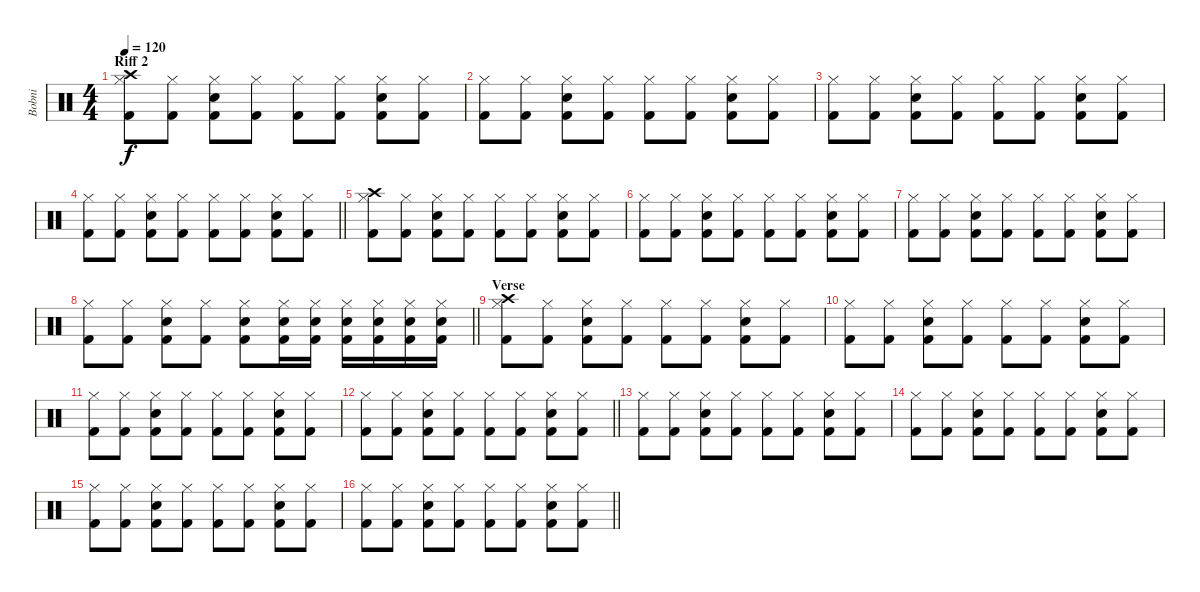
\track ("Bobni" "Bobni") {instrument percussion}
\staff {score}
\articulation defaults
\ts (4 4)
\section ("" "Riff 2")
\tempo 120
\clef neutral
\ks c
("Crash high (hit)" "Hi-Hat (closed)" "Kick (hit) 2").8{dy f} ("Hi-Hat (closed)" "Kick (hit) 2").8 ("Hi-Hat (closed)" "Electric Snare (hit)" "Kick (hit) 2").8 ("Hi-Hat (closed)" "Kick (hit) 2").8 ("Hi-Hat (closed)" "Kick (hit) 2").8 ("Hi-Hat (closed)" "Kick (hit) 2").8 ("Hi-Hat (closed)" "Electric Snare (hit)" "Kick (hit) 2").8 ("Hi-Hat (closed)" "Kick (hit) 2").8 |
("Hi-Hat (closed)" "Kick (hit) 2").8 ("Hi-Hat (closed)" "Kick (hit) 2").8 ("Hi-Hat (closed)" "Electric Snare (hit)" "Kick (hit) 2").8 ("Hi-Hat (closed)" "Kick (hit) 2").8 ("Hi-Hat (closed)" "Kick (hit) 2").8 ("Hi-Hat (closed)" "Kick (hit) 2").8 ("Hi-Hat (closed)" "Electric Snare (hit)" "Kick (hit) 2").8 ("Hi-Hat (closed)" "Kick (hit) 2").8 |
("Hi-Hat (closed)" "Kick (hit) 2").8 ("Hi-Hat (closed)" "Kick (hit) 2").8 ("Hi-Hat (closed)" "Electric Snare (hit)" "Kick (hit) 2").8 ("Hi-Hat (closed)" "Kick (hit) 2").8 ("Hi-Hat (closed)" "Kick (hit) 2").8 ("Hi-Hat (closed)" "Kick (hit) 2").8 ("Hi-Hat (closed)" "Electric Snare (hit)" "Kick (hit) 2").8 ("Hi-Hat (closed)" "Kick (hit) 2").8 |
\barLineRight lightlight
("Hi-Hat (closed)" "Kick (hit) 2").8 ("Hi-Hat (closed)" "Kick (hit) 2").8 ("Hi-Hat (closed)" "Electric Snare (hit)" "Kick (hit) 2").8 ("Hi-Hat (closed)" "Kick (hit) 2").8 ("Hi-Hat (closed)" "Kick (hit) 2").8 ("Hi-Hat (closed)" "Kick (hit) 2").8 ("Hi-Hat (closed)" "Electric Snare (hit)" "Kick (hit) 2").8 ("Hi-Hat (closed)" "Kick (hit) 2").8 |
("Crash high (hit)" "Hi-Hat (closed)" "Kick (hit) 2").8 ("Hi-Hat (closed)" "Kick (hit) 2").8 ("Hi-Hat (closed)" "Electric Snare (hit)" "Kick (hit) 2").8 ("Hi-Hat (closed)" "Kick (hit) 2").8 ("Hi-Hat (closed)" "Kick (hit) 2").8 ("Hi-Hat (closed)" "Kick (hit) 2").8 ("Hi-Hat (closed)" "Electric Snare (hit)" "Kick (hit) 2").8 ("Hi-Hat (closed)" "Kick (hit) 2").8 |
("Hi-Hat (closed)" "Kick (hit) 2").8 ("Hi-Hat (closed)" "Kick (hit) 2").8 ("Hi-Hat (closed)" "Electric Snare (hit)" "Kick (hit) 2").8 ("Hi-Hat (closed)" "Kick (hit) 2").8 ("Hi-Hat (closed)" "Kick (hit) 2").8 ("Hi-Hat (closed)" "Kick (hit) 2").8 ("Hi-Hat (closed)" "Electric Snare (hit)" "Kick (hit) 2").8 ("Hi-Hat (closed)" "Kick (hit) 2").8 |
("Hi-Hat (closed)" "Kick (hit) 2").8 ("Hi-Hat (closed)" "Kick (hit) 2").8 ("Hi-Hat (closed)" "Electric Snare (hit)" "Kick (hit) 2").8 ("Hi-Hat (closed)" "Kick (hit) 2").8 ("Hi-Hat (closed)" "Kick (hit) 2").8 ("Hi-Hat (closed)" "Kick (hit) 2").8 ("Hi-Hat (closed)" "Electric Snare (hit)" "Kick (hit) 2").8 ("Hi-Hat (closed)" "Kick (hit) 2").8 |
\barLineRight lightlight
("Hi-Hat (closed)" "Kick (hit) 2").8 ("Hi-Hat (closed)" "Kick (hit) 2").8 ("Hi-Hat (closed)" "Electric Snare (hit)" "Kick (hit) 2").8 ("Hi-Hat (closed)" "Kick (hit) 2").8 ("Hi-Hat (closed)" "Electric Snare (hit)" "Kick (hit) 2").8 ("Hi-Hat (closed)" "Electric Snare (hit)" "Kick (hit) 2").16 ("Hi-Hat (closed)" "Electric Snare (hit)" "Kick (hit) 2").16 ("Hi-Hat (closed)" "Electric Snare (hit)" "Kick (hit) 2").16 ("Hi-Hat (closed)" "Electric Snare (hit)" "Kick (hit) 2").16 ("Hi-Hat (closed)" "Electric Snare (hit)" "Kick (hit) 2").16 ("Hi-Hat (closed)" "Electric Snare (hit)" "Kick (hit) 2").16 |
\section ("" "Verse")
("Crash high (hit)" "Hi-Hat (closed)" "Kick (hit) 2").8 ("Hi-Hat (closed)" "Kick (hit) 2").8 ("Hi-Hat (closed)" "Electric Snare (hit)" "Kick (hit) 2").8 ("Hi-Hat (closed)" "Kick (hit) 2").8 ("Hi-Hat (closed)" "Kick (hit) 2").8 ("Hi-Hat (closed)" "Kick (hit) 2").8 ("Hi-Hat (closed)" "Electric Snare (hit)" "Kick (hit) 2").8 ("Hi-Hat (closed)" "Kick (hit) 2").8 |
("Hi-Hat (closed)" "Kick (hit) 2").8 ("Hi-Hat (closed)" "Kick (hit) 2").8 ("Hi-Hat (closed)" "Electric Snare (hit)" "Kick (hit) 2").8 ("Hi-Hat (closed)" "Kick (hit) 2").8 ("Hi-Hat (closed)" "Kick (hit) 2").8 ("Hi-Hat (closed)" "Kick (hit) 2").8 ("Hi-Hat (closed)" "Electric Snare (hit)" "Kick (hit) 2").8 ("Hi-Hat (closed)" "Kick (hit) 2").8 |
("Hi-Hat (closed)" "Kick (hit) 2").8 ("Hi-Hat (closed)" "Kick (hit) 2").8 ("Hi-Hat (closed)" "Electric Snare (hit)" "Kick (hit) 2").8 ("Hi-Hat (closed)" "Kick (hit) 2").8 ("Hi-Hat (closed)" "Kick (hit) 2").8 ("Hi-Hat (closed)" "Kick (hit) 2").8 ("Hi-Hat (closed)" "Electric Snare (hit)" "Kick (hit) 2").8 ("Hi-Hat (closed)" "Kick (hit) 2").8 |
\barLineRight lightlight
("Hi-Hat (closed)" "Kick (hit) 2").8 ("Hi-Hat (closed)" "Kick (hit) 2").8 ("Hi-Hat (closed)" "Electric Snare (hit)" "Kick (hit) 2").8 ("Hi-Hat (closed)" "Kick (hit) 2").8 ("Hi-Hat (closed)" "Kick (hit) 2").8 ("Hi-Hat (closed)" "Kick (hit) 2").8 ("Hi-Hat (closed)" "Electric Snare (hit)" "Kick (hit) 2").8 ("Hi-Hat (closed)" "Kick (hit) 2").8 |
("Hi-Hat (closed)" "Kick (hit) 2").8 ("Hi-Hat (closed)" "Kick (hit) 2").8 ("Hi-Hat (closed)" "Electric Snare (hit)" "Kick (hit) 2").8 ("Hi-Hat (closed)" "Kick (hit) 2").8 ("Hi-Hat (closed)" "Kick (hit) 2").8 ("Hi-Hat (closed)" "Kick (hit) 2").8 ("Hi-Hat (closed)" "Electric Snare (hit)" "Kick (hit) 2").8 ("Hi-Hat (closed)" "Kick (hit) 2").8 |
("Hi-Hat (closed)" "Kick (hit) 2").8 ("Hi-Hat (closed)" "Kick (hit) 2").8 ("Hi-Hat (closed)" "Electric Snare (hit)" "Kick (hit) 2").8 ("Hi-Hat (closed)" "Kick (hit) 2").8 ("Hi-Hat (closed)" "Kick (hit) 2").8 ("Hi-Hat (closed)" "Kick (hit) 2").8 ("Hi-Hat (closed)" "Electric Snare (hit)" "Kick (hit) 2").8 ("Hi-Hat (closed)" "Kick (hit) 2").8 |
("Hi-Hat (closed)" "Kick (hit) 2").8 ("Hi-Hat (closed)" "Kick (hit) 2").8 ("Hi-Hat (closed)" "Electric Snare (hit)" "Kick (hit) 2").8 ("Hi-Hat (closed)" "Kick (hit) 2").8 ("Hi-Hat (closed)" "Kick (hit) 2").8 ("Hi-Hat (closed)" "Kick (hit) 2").8 ("Hi-Hat (closed)" "Electric Snare (hit)" "Kick (hit) 2").8 ("Hi-Hat (closed)" "Kick (hit) 2").8 |
\barLineRight lightlight
("Hi-Hat (closed)" "Kick (hit) 2").8 ("Hi-Hat (closed)" "Kick (hit) 2").8 ("Hi-Hat (closed)" "Electric Snare (hit)" "Kick (hit) 2").8 ("Hi-Hat (closed)" "Kick (hit) 2").8 ("Hi-Hat (closed)" "Kick (hit) 2").8 ("Hi-Hat (closed)" "Kick (hit) 2").8 ("Hi-Hat (closed)" "Electric Snare (hit)" "Kick (hit) 2").8 ("Hi-Hat (closed)" "Kick (hit) 2").8
